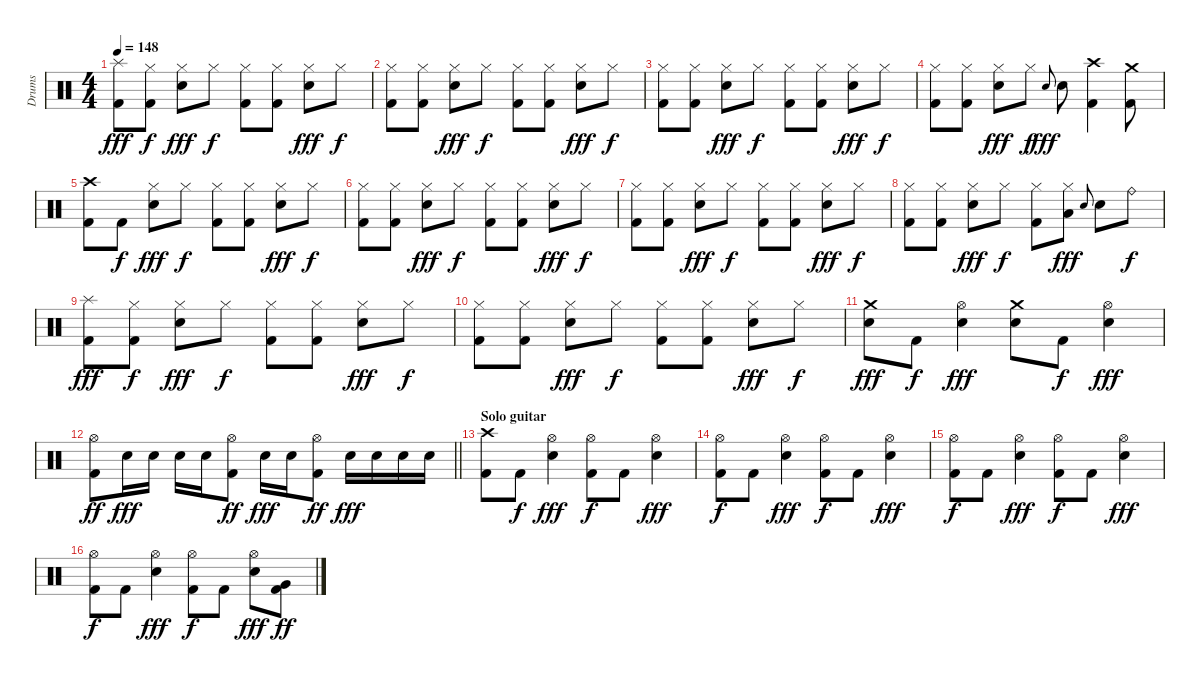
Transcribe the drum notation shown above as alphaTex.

\track ("Drums" "Drums") {instrument percussion}
\staff {score}
\articulation defaults
\ts (4 4)
\tempo 148
\clef neutral
\ks c
("Splash (hit)" "Kick (hit) 2").8{dy fff} ("Hi-Hat (closed)" "Kick (hit) 2").8{dy f} ("Hi-Hat (closed)" "Electric Snare (hit)").8{dy fff} "Hi-Hat (closed)".8{dy f} ("Hi-Hat (closed)" "Kick (hit) 2").8 ("Hi-Hat (closed)" "Kick (hit) 2").8 ("Hi-Hat (closed)" "Electric Snare (hit)").8{dy fff} "Hi-Hat (closed)".8{dy f} |
("Hi-Hat (closed)" "Kick (hit) 2").8 ("Hi-Hat (closed)" "Kick (hit) 2").8 ("Hi-Hat (closed)" "Electric Snare (hit)").8{dy fff} "Hi-Hat (closed)".8{dy f} ("Hi-Hat (closed)" "Kick (hit) 2").8 ("Hi-Hat (closed)" "Kick (hit) 2").8 ("Hi-Hat (closed)" "Electric Snare (hit)").8{dy fff} "Hi-Hat (closed)".8{dy f} |
("Hi-Hat (closed)" "Kick (hit) 2").8 ("Hi-Hat (closed)" "Kick (hit) 2").8 ("Hi-Hat (closed)" "Electric Snare (hit)").8{dy fff} "Hi-Hat (closed)".8{dy f} ("Hi-Hat (closed)" "Kick (hit) 2").8 ("Hi-Hat (closed)" "Kick (hit) 2").8 ("Hi-Hat (closed)" "Electric Snare (hit)").8{dy fff} "Hi-Hat (closed)".8{dy f} |
("Hi-Hat (closed)" "Kick (hit) 2").8 ("Hi-Hat (closed)" "Kick (hit) 2").8 ("Hi-Hat (closed)" "Electric Snare (hit)").8{dy fff} "Hi-Hat (closed)".8{dy f} "Electric Snare (hit)".8{gr onbeat dy fff} "Electric Snare (hit)".8 ("Crash high (hit)" "Kick (hit) 2").4 ("Crash medium (hit)" "Kick (hit) 2").8 |
("Crash high (hit)" "Kick (hit) 2").8 "Kick (hit) 2".8{dy f} ("Hi-Hat (closed)" "Electric Snare (hit)").8{dy fff} "Hi-Hat (closed)".8{dy f} ("Hi-Hat (closed)" "Kick (hit) 2").8 ("Hi-Hat (closed)" "Kick (hit) 2").8 ("Hi-Hat (closed)" "Electric Snare (hit)").8{dy fff} "Hi-Hat (closed)".8{dy f} |
("Hi-Hat (closed)" "Kick (hit) 2").8 ("Hi-Hat (closed)" "Kick (hit) 2").8 ("Hi-Hat (closed)" "Electric Snare (hit)").8{dy fff} "Hi-Hat (closed)".8{dy f} ("Hi-Hat (closed)" "Kick (hit) 2").8 ("Hi-Hat (closed)" "Kick (hit) 2").8 ("Hi-Hat (closed)" "Electric Snare (hit)").8{dy fff} "Hi-Hat (closed)".8{dy f} |
("Hi-Hat (closed)" "Kick (hit) 2").8 ("Hi-Hat (closed)" "Kick (hit) 2").8 ("Hi-Hat (closed)" "Electric Snare (hit)").8{dy fff} "Hi-Hat (closed)".8{dy f} ("Hi-Hat (closed)" "Kick (hit) 2").8 ("Hi-Hat (closed)" "Kick (hit) 2").8 ("Hi-Hat (closed)" "Electric Snare (hit)").8{dy fff} "Hi-Hat (closed)".8{dy f} |
("Hi-Hat (closed)" "Kick (hit) 2").8 ("Hi-Hat (closed)" "Kick (hit) 2").8 ("Hi-Hat (closed)" "Electric Snare (hit)").8{dy fff} "Hi-Hat (closed)".8{dy f} ("Hi-Hat (closed)" "Kick (hit) 2").8 ("Hi-Hat (closed)" "Low Tom (hit)").8{dy fff} "Electric Snare (hit)".8{gr onbeat} "Electric Snare (hit)".8 "Ride (bell)".8{dy f} |
("Splash (hit)" "Kick (hit) 2").8{dy fff} ("Hi-Hat (closed)" "Kick (hit) 2").8{dy f} ("Hi-Hat (closed)" "Electric Snare (hit)").8{dy fff} "Hi-Hat (closed)".8{dy f} ("Hi-Hat (closed)" "Kick (hit) 2").8 ("Hi-Hat (closed)" "Kick (hit) 2").8 ("Hi-Hat (closed)" "Electric Snare (hit)").8{dy fff} "Hi-Hat (closed)".8{dy f} |
("Hi-Hat (closed)" "Kick (hit) 2").8 ("Hi-Hat (closed)" "Kick (hit) 2").8 ("Hi-Hat (closed)" "Electric Snare (hit)").8{dy fff} "Hi-Hat (closed)".8{dy f} ("Hi-Hat (closed)" "Kick (hit) 2").8 ("Hi-Hat (closed)" "Kick (hit) 2").8 ("Hi-Hat (closed)" "Electric Snare (hit)").8{dy fff} "Hi-Hat (closed)".8{dy f} |
("Crash medium (hit)" "Electric Snare (hit)").8{dy fff} "Kick (hit) 2".8{dy f} ("Hi-Hat (open)" "Electric Snare (hit)").4{dy fff} ("Crash medium (hit)" "Electric Snare (hit)").8 "Kick (hit) 2".8{dy f} ("Hi-Hat (open)" "Electric Snare (hit)").4{dy fff} |
\barLineRight lightlight
("Hi-Hat (open)" "Kick (hit) 2").8{dy ff} "Electric Snare (hit)".16{dy fff} "Electric Snare (hit)".16 "Electric Snare (hit)".16 "Electric Snare (hit)".16 ("Hi-Hat (open)" "Kick (hit) 2").8{dy ff} "Electric Snare (hit)".16{dy fff} "Electric Snare (hit)".16 ("Hi-Hat (open)" "Kick (hit) 2").8{dy ff} "Electric Snare (hit)".16{dy fff} "Electric Snare (hit)".16 "Electric Snare (hit)".16 "Electric Snare (hit)".16 |
\section ("" "Solo guitar")
("Crash high (hit)" "Kick (hit) 2").8 "Kick (hit) 2".8{dy f} ("Hi-Hat (open)" "Electric Snare (hit)").4{dy fff} ("Hi-Hat (open)" "Kick (hit) 2").8{dy f} "Kick (hit) 2".8 ("Hi-Hat (open)" "Electric Snare (hit)").4{dy fff} |
("Hi-Hat (open)" "Kick (hit) 2").8{dy f} "Kick (hit) 2".8 ("Hi-Hat (open)" "Electric Snare (hit)").4{dy fff} ("Hi-Hat (open)" "Kick (hit) 2").8{dy f} "Kick (hit) 2".8 ("Hi-Hat (open)" "Electric Snare (hit)").4{dy fff} |
("Hi-Hat (open)" "Kick (hit) 2").8{dy f} "Kick (hit) 2".8 ("Hi-Hat (open)" "Electric Snare (hit)").4{dy fff} ("Hi-Hat (open)" "Kick (hit) 2").8{dy f} "Kick (hit) 2".8 ("Hi-Hat (open)" "Electric Snare (hit)").4{dy fff} |
("Hi-Hat (open)" "Kick (hit) 2").8{dy f} "Kick (hit) 2".8 ("Hi-Hat (open)" "Electric Snare (hit)").4{dy fff} ("Hi-Hat (open)" "Kick (hit) 2").8{dy f} "Kick (hit) 2".8 ("Hi-Hat (open)" "Electric Snare (hit)").8{dy fff} ("Very Low Tom (hit)" "Kick (hit) 2").8{dy ff}
